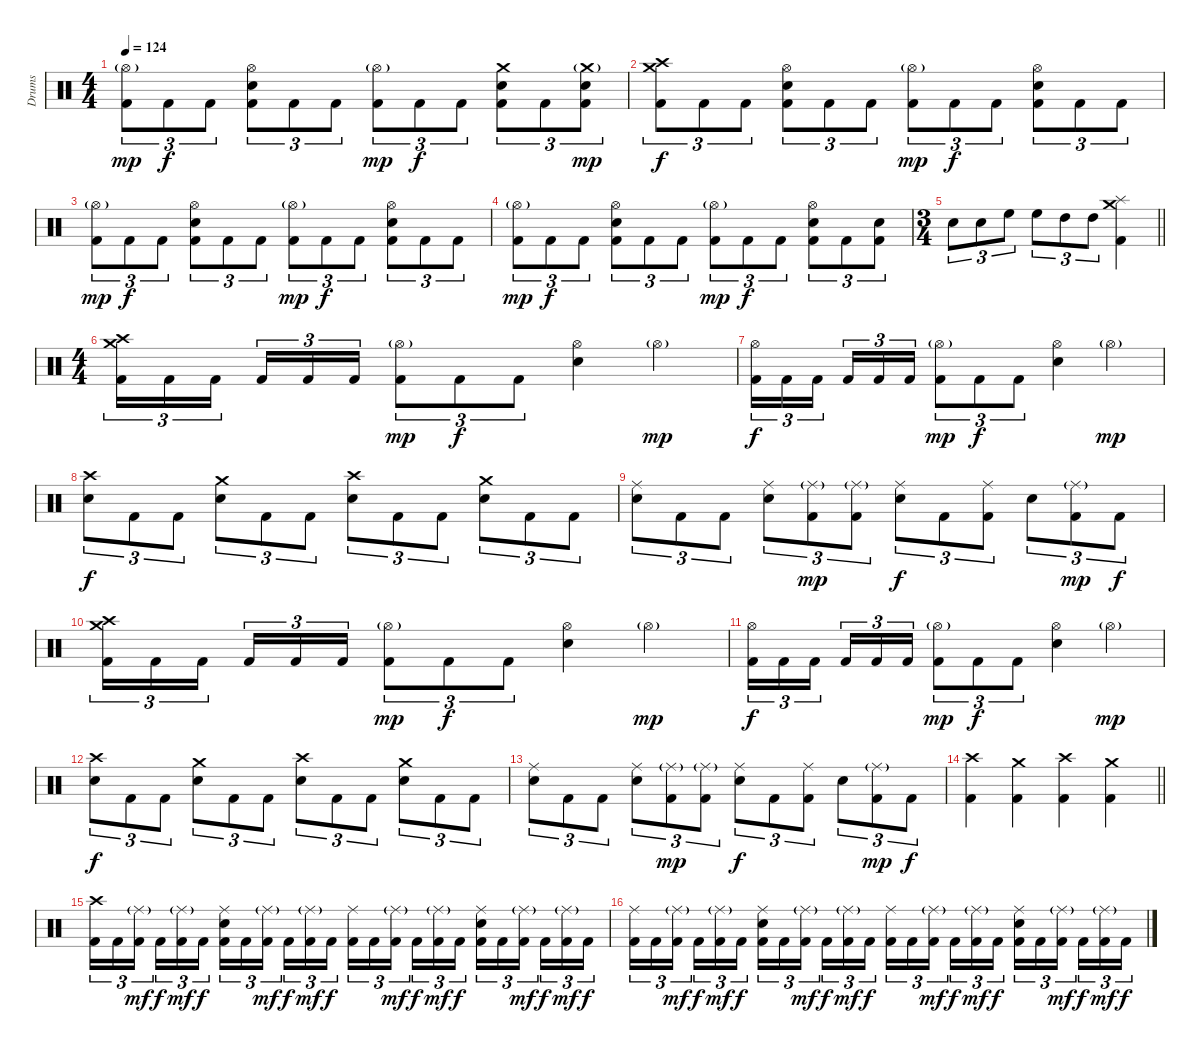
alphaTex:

\track ("Drums" "Drums") {instrument percussion}
\staff {score}
\articulation defaults
\ts (4 4)
\tempo 124
\clef neutral
\ks c
("Hi-Hat (open)"{g} "Kick (hit) 2").8{tu (3 2) dy mp} "Kick (hit) 2".8{tu (3 2) dy f} "Kick (hit) 2".8{tu (3 2)} ("Hi-Hat (open)" "Electric Snare (hit)" "Kick (hit) 2").8{tu (3 2)} "Kick (hit) 2".8{tu (3 2)} "Kick (hit) 2".8{tu (3 2)} ("Hi-Hat (open)"{g} "Kick (hit) 2").8{tu (3 2) dy mp} "Kick (hit) 2".8{tu (3 2) dy f} "Kick (hit) 2".8{tu (3 2)} ("Crash medium (hit)" "Electric Snare (hit)" "Kick (hit) 2").8{tu (3 2)} "Kick (hit) 2".8{tu (3 2)} ("Crash medium (hit)"{g} "Electric Snare (hit)" "Kick (hit) 2").8{tu (3 2) dy mp} |
("Crash high (hit)" "Crash medium (hit)" "Kick (hit) 2").8{tu (3 2) dy f} "Kick (hit) 2".8{tu (3 2)} "Kick (hit) 2".8{tu (3 2)} ("Hi-Hat (open)" "Electric Snare (hit)" "Kick (hit) 2").8{tu (3 2)} "Kick (hit) 2".8{tu (3 2)} "Kick (hit) 2".8{tu (3 2)} ("Hi-Hat (open)"{g} "Kick (hit) 2").8{tu (3 2) dy mp} "Kick (hit) 2".8{tu (3 2) dy f} "Kick (hit) 2".8{tu (3 2)} ("Hi-Hat (open)" "Electric Snare (hit)" "Kick (hit) 2").8{tu (3 2)} "Kick (hit) 2".8{tu (3 2)} "Kick (hit) 2".8{tu (3 2)} |
("Hi-Hat (open)"{g} "Kick (hit) 2").8{tu (3 2) dy mp} "Kick (hit) 2".8{tu (3 2) dy f} "Kick (hit) 2".8{tu (3 2)} ("Hi-Hat (open)" "Electric Snare (hit)" "Kick (hit) 2").8{tu (3 2)} "Kick (hit) 2".8{tu (3 2)} "Kick (hit) 2".8{tu (3 2)} ("Hi-Hat (open)"{g} "Kick (hit) 2").8{tu (3 2) dy mp} "Kick (hit) 2".8{tu (3 2) dy f} "Kick (hit) 2".8{tu (3 2)} ("Hi-Hat (open)" "Electric Snare (hit)" "Kick (hit) 2").8{tu (3 2)} "Kick (hit) 2".8{tu (3 2)} "Kick (hit) 2".8{tu (3 2)} |
("Hi-Hat (open)"{g} "Kick (hit) 2").8{tu (3 2) dy mp} "Kick (hit) 2".8{tu (3 2) dy f} "Kick (hit) 2".8{tu (3 2)} ("Hi-Hat (open)" "Electric Snare (hit)" "Kick (hit) 2").8{tu (3 2)} "Kick (hit) 2".8{tu (3 2)} "Kick (hit) 2".8{tu (3 2)} ("Hi-Hat (open)"{g} "Kick (hit) 2").8{tu (3 2) dy mp} "Kick (hit) 2".8{tu (3 2) dy f} "Kick (hit) 2".8{tu (3 2)} ("Hi-Hat (open)" "Electric Snare (hit)" "Kick (hit) 2").8{tu (3 2)} "Kick (hit) 2".8{tu (3 2)} ("Electric Snare (hit)" "Kick (hit) 2").8{tu (3 2)} |
\ts (3 4)
\barLineRight lightlight "Electric Snare (hit)".8{tu (3 2)} "Electric Snare (hit)".8{tu (3 2)} "High Floor Tom (hit)".8{tu (3 2)} "High Floor Tom (hit)".8{tu (3 2)} "High Tom (hit)".8{tu (3 2)} "High Tom (hit)".8{tu (3 2)}
("Crash medium (hit)" "Splash (hit)" "Kick (hit) 2").4 |
\ts (4 4)
("Crash high (hit)" "Crash medium (hit)" "Kick (hit) 2").16{tu (3 2)} "Kick (hit) 2".16{tu (3 2)} "Kick (hit) 2".16{tu (3 2)} "Kick (hit) 2".16{tu (3 2)} "Kick (hit) 2".16{tu (3 2)} "Kick (hit) 2".16{tu (3 2)} ("Hi-Hat (open)"{g} "Kick (hit) 2").8{tu (3 2) dy mp} "Kick (hit) 2".8{tu (3 2) dy f} "Kick (hit) 2".8{tu (3 2)} ("Hi-Hat (open)" "Electric Snare (hit)").4 "Hi-Hat (open)"{g}.4{dy mp} |
("Hi-Hat (open)" "Kick (hit) 2").16{tu (3 2) dy f} "Kick (hit) 2".16{tu (3 2)} "Kick (hit) 2".16{tu (3 2)} "Kick (hit) 2".16{tu (3 2)} "Kick (hit) 2".16{tu (3 2)} "Kick (hit) 2".16{tu (3 2)} ("Hi-Hat (open)"{g} "Kick (hit) 2").8{tu (3 2) dy mp} "Kick (hit) 2".8{tu (3 2) dy f} "Kick (hit) 2".8{tu (3 2)} ("Hi-Hat (open)" "Electric Snare (hit)").4 "Hi-Hat (open)"{g}.4{dy mp} |
("Crash high (hit)" "Electric Snare (hit)").8{tu (3 2) dy f} "Kick (hit) 2".8{tu (3 2)} "Kick (hit) 2".8{tu (3 2)} ("Crash medium (hit)" "Electric Snare (hit)").8{tu (3 2)} "Kick (hit) 2".8{tu (3 2)} "Kick (hit) 2".8{tu (3 2)} ("Crash high (hit)" "Electric Snare (hit)").8{tu (3 2)} "Kick (hit) 2".8{tu (3 2)} "Kick (hit) 2".8{tu (3 2)} ("Crash medium (hit)" "Electric Snare (hit)").8{tu (3 2)} "Kick (hit) 2".8{tu (3 2)} "Kick (hit) 2".8{tu (3 2)} |
("Ride (middle)" "Electric Snare (hit)").8{tu (3 2)} "Kick (hit) 2".8{tu (3 2)} "Kick (hit) 2".8{tu (3 2)} ("Ride (middle)" "Electric Snare (hit)").8{tu (3 2)} ("Ride (middle)"{g} "Kick (hit) 2").8{tu (3 2) dy mp} ("Ride (middle)"{g} "Kick (hit) 2").8{tu (3 2)} ("Ride (middle)" "Electric Snare (hit)").8{tu (3 2) dy f} "Kick (hit) 2".8{tu (3 2)} ("Ride (middle)" "Kick (hit) 2").8{tu (3 2)} "Electric Snare (hit)".8{tu (3 2)} ("Ride (middle)"{g} "Kick (hit) 2").8{tu (3 2) dy mp} "Kick (hit) 2".8{tu (3 2) dy f} |
("Crash high (hit)" "Crash medium (hit)" "Kick (hit) 2").16{tu (3 2)} "Kick (hit) 2".16{tu (3 2)} "Kick (hit) 2".16{tu (3 2)} "Kick (hit) 2".16{tu (3 2)} "Kick (hit) 2".16{tu (3 2)} "Kick (hit) 2".16{tu (3 2)} ("Hi-Hat (open)"{g} "Kick (hit) 2").8{tu (3 2) dy mp} "Kick (hit) 2".8{tu (3 2) dy f} "Kick (hit) 2".8{tu (3 2)} ("Hi-Hat (open)" "Electric Snare (hit)").4 "Hi-Hat (open)"{g}.4{dy mp} |
("Hi-Hat (open)" "Kick (hit) 2").16{tu (3 2) dy f} "Kick (hit) 2".16{tu (3 2)} "Kick (hit) 2".16{tu (3 2)} "Kick (hit) 2".16{tu (3 2)} "Kick (hit) 2".16{tu (3 2)} "Kick (hit) 2".16{tu (3 2)} ("Hi-Hat (open)"{g} "Kick (hit) 2").8{tu (3 2) dy mp} "Kick (hit) 2".8{tu (3 2) dy f} "Kick (hit) 2".8{tu (3 2)} ("Hi-Hat (open)" "Electric Snare (hit)").4 "Hi-Hat (open)"{g}.4{dy mp} |
("Crash high (hit)" "Electric Snare (hit)").8{tu (3 2) dy f} "Kick (hit) 2".8{tu (3 2)} "Kick (hit) 2".8{tu (3 2)} ("Crash medium (hit)" "Electric Snare (hit)").8{tu (3 2)} "Kick (hit) 2".8{tu (3 2)} "Kick (hit) 2".8{tu (3 2)} ("Crash high (hit)" "Electric Snare (hit)").8{tu (3 2)} "Kick (hit) 2".8{tu (3 2)} "Kick (hit) 2".8{tu (3 2)} ("Crash medium (hit)" "Electric Snare (hit)").8{tu (3 2)} "Kick (hit) 2".8{tu (3 2)} "Kick (hit) 2".8{tu (3 2)} |
("Ride (middle)" "Electric Snare (hit)").8{tu (3 2)} "Kick (hit) 2".8{tu (3 2)} "Kick (hit) 2".8{tu (3 2)} ("Ride (middle)" "Electric Snare (hit)").8{tu (3 2)} ("Ride (middle)"{g} "Kick (hit) 2").8{tu (3 2) dy mp} ("Ride (middle)"{g} "Kick (hit) 2").8{tu (3 2)} ("Ride (middle)" "Electric Snare (hit)").8{tu (3 2) dy f} "Kick (hit) 2".8{tu (3 2)} ("Ride (middle)" "Kick (hit) 2").8{tu (3 2)} "Electric Snare (hit)".8{tu (3 2)} ("Ride (middle)"{g} "Kick (hit) 2").8{tu (3 2) dy mp} "Kick (hit) 2".8{tu (3 2) dy f} |
\barLineRight lightlight
("Crash high (hit)" "Kick (hit) 2").4 ("Crash medium (hit)" "Kick (hit) 2").4 ("Crash high (hit)" "Kick (hit) 2").4 ("Crash medium (hit)" "Kick (hit) 2").4 |
("Crash high (hit)" "Kick (hit) 2").16{tu (3 2)} "Kick (hit) 2".16{tu (3 2)} ("Ride (middle)"{g} "Kick (hit) 2").16{tu (3 2) dy mf} "Kick (hit) 2".16{tu (3 2) dy f} ("Ride (middle)"{g} "Kick (hit) 2").16{tu (3 2) dy mf} "Kick (hit) 2".16{tu (3 2) dy f} ("Ride (middle)" "Electric Snare (hit)" "Kick (hit) 2").16{tu (3 2)} "Kick (hit) 2".16{tu (3 2)} ("Ride (middle)"{g} "Kick (hit) 2").16{tu (3 2) dy mf} "Kick (hit) 2".16{tu (3 2) dy f} ("Ride (middle)"{g} "Kick (hit) 2").16{tu (3 2) dy mf} "Kick (hit) 2".16{tu (3 2) dy f} ("Ride (middle)" "Kick (hit) 2").16{tu (3 2)} "Kick (hit) 2".16{tu (3 2)} ("Ride (middle)"{g} "Kick (hit) 2").16{tu (3 2) dy mf} "Kick (hit) 2".16{tu (3 2) dy f} ("Ride (middle)"{g} "Kick (hit) 2").16{tu (3 2) dy mf} "Kick (hit) 2".16{tu (3 2) dy f} ("Ride (middle)" "Electric Snare (hit)" "Kick (hit) 2").16{tu (3 2)} "Kick (hit) 2".16{tu (3 2)} ("Ride (middle)"{g} "Kick (hit) 2").16{tu (3 2) dy mf} "Kick (hit) 2".16{tu (3 2) dy f} ("Ride (middle)"{g} "Kick (hit) 2").16{tu (3 2) dy mf} "Kick (hit) 2".16{tu (3 2) dy f} |
("Ride (middle)" "Kick (hit) 2").16{tu (3 2)} "Kick (hit) 2".16{tu (3 2)} ("Ride (middle)"{g} "Kick (hit) 2").16{tu (3 2) dy mf} "Kick (hit) 2".16{tu (3 2) dy f} ("Ride (middle)"{g} "Kick (hit) 2").16{tu (3 2) dy mf} "Kick (hit) 2".16{tu (3 2) dy f} ("Ride (middle)" "Electric Snare (hit)" "Kick (hit) 2").16{tu (3 2)} "Kick (hit) 2".16{tu (3 2)} ("Ride (middle)"{g} "Kick (hit) 2").16{tu (3 2) dy mf} "Kick (hit) 2".16{tu (3 2) dy f} ("Ride (middle)"{g} "Kick (hit) 2").16{tu (3 2) dy mf} "Kick (hit) 2".16{tu (3 2) dy f} ("Ride (middle)" "Kick (hit) 2").16{tu (3 2)} "Kick (hit) 2".16{tu (3 2)} ("Ride (middle)"{g} "Kick (hit) 2").16{tu (3 2) dy mf} "Kick (hit) 2".16{tu (3 2) dy f} ("Ride (middle)"{g} "Kick (hit) 2").16{tu (3 2) dy mf} "Kick (hit) 2".16{tu (3 2) dy f} ("Ride (middle)" "Electric Snare (hit)" "Kick (hit) 2").16{tu (3 2)} "Kick (hit) 2".16{tu (3 2)} ("Ride (middle)"{g} "Kick (hit) 2").16{tu (3 2) dy mf} "Kick (hit) 2".16{tu (3 2) dy f} ("Ride (middle)"{g} "Kick (hit) 2").16{tu (3 2) dy mf} "Kick (hit) 2".16{tu (3 2) dy f}
